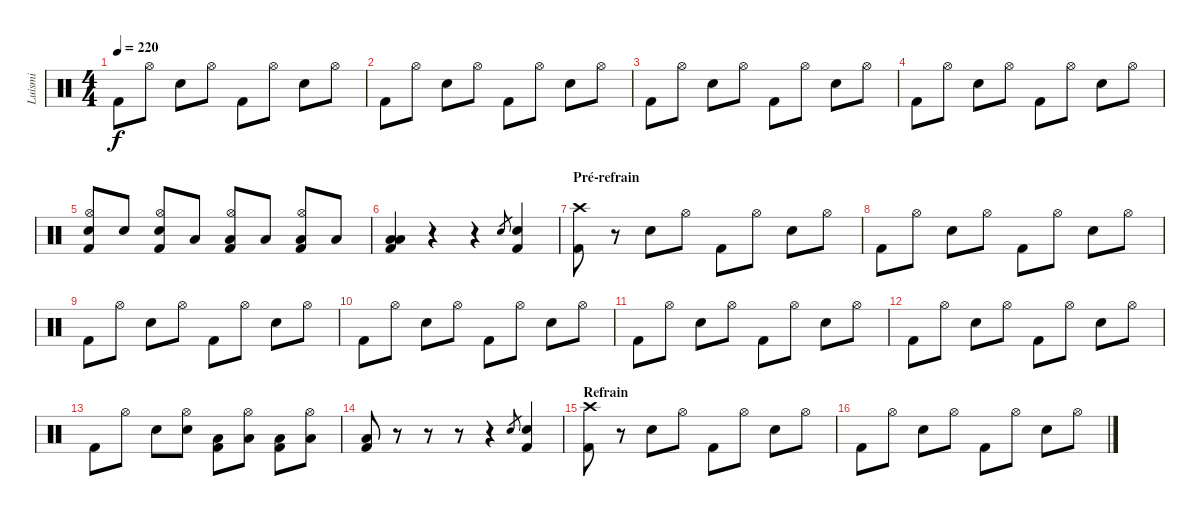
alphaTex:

\track ("Luismi" "Luismi") {instrument percussion}
\staff {score}
\articulation defaults
\ts (4 4)
\tempo 220
\clef neutral
\ks c "Kick (hit) 2".8{dy f} "Hi-Hat (open)".8 "Snare (hit) 2".8 "Hi-Hat (open)".8 "Kick (hit) 2".8 "Hi-Hat (open)".8 "Snare (hit) 2".8 "Hi-Hat (open)".8
|
"Kick (hit) 2".8 "Hi-Hat (open)".8 "Snare (hit) 2".8 "Hi-Hat (open)".8 "Kick (hit) 2".8 "Hi-Hat (open)".8 "Snare (hit) 2".8 "Hi-Hat (open)".8 |
"Kick (hit) 2".8 "Hi-Hat (open)".8 "Snare (hit) 2".8 "Hi-Hat (open)".8 "Kick (hit) 2".8 "Hi-Hat (open)".8 "Snare (hit) 2".8 "Hi-Hat (open)".8 |
"Kick (hit) 2".8 "Hi-Hat (open)".8 "Snare (hit) 2".8 "Hi-Hat (open)".8 "Kick (hit) 2".8 "Hi-Hat (open)".8 "Snare (hit) 2".8 "Hi-Hat (open)".8 |
("Hi-Hat (open)" "Snare (hit) 2" "Kick (hit) 2").8 "Snare (hit) 2".8 ("Hi-Hat (open)" "Snare (hit) 2" "Kick (hit) 2").8 "Low Tom (hit)".8 ("Hi-Hat (open)" "Low Tom (hit)" "Kick (hit) 2").8 "Low Tom (hit)".8 ("Hi-Hat (open)" "Low Floor Tom (hit)" "Kick (hit) 2").8 "Low Floor Tom (hit)".8 |
("Low Tom (hit)" "Low Floor Tom (hit)" "Kick (hit) 2").4 r.4 r.4 "Snare (hit) 2".8{gr} ("Snare (hit) 2" "Kick (hit) 2").4 |
\section ("" "Pré-refrain")
("Crash high (hit)" "Kick (hit) 2").8 r.8 "Snare (hit) 2".8 "Hi-Hat (open)".8 "Kick (hit) 2".8 "Hi-Hat (open)".8 "Snare (hit) 2".8 "Hi-Hat (open)".8 |
"Kick (hit) 2".8 "Hi-Hat (open)".8 "Snare (hit) 2".8 "Hi-Hat (open)".8 "Kick (hit) 2".8 "Hi-Hat (open)".8 "Snare (hit) 2".8 "Hi-Hat (open)".8 |
"Kick (hit) 2".8 "Hi-Hat (open)".8 "Snare (hit) 2".8 "Hi-Hat (open)".8 "Kick (hit) 2".8 "Hi-Hat (open)".8 "Snare (hit) 2".8 "Hi-Hat (open)".8 |
"Kick (hit) 2".8 "Hi-Hat (open)".8 "Snare (hit) 2".8 "Hi-Hat (open)".8 "Kick (hit) 2".8 "Hi-Hat (open)".8 "Snare (hit) 2".8 "Hi-Hat (open)".8 |
"Kick (hit) 2".8 "Hi-Hat (open)".8 "Snare (hit) 2".8 "Hi-Hat (open)".8 "Kick (hit) 2".8 "Hi-Hat (open)".8 "Snare (hit) 2".8 "Hi-Hat (open)".8 |
"Kick (hit) 2".8 "Hi-Hat (open)".8 "Snare (hit) 2".8 "Hi-Hat (open)".8 "Kick (hit) 2".8 "Hi-Hat (open)".8 "Snare (hit) 2".8 "Hi-Hat (open)".8 |
"Kick (hit) 2".8 "Hi-Hat (open)".8 "Snare (hit) 2".8 ("Hi-Hat (open)" "Snare (hit) 2").8 ("Low Tom (hit)" "Kick (hit) 2").8 ("Hi-Hat (open)" "Low Tom (hit)").8 ("Low Floor Tom (hit)" "Kick (hit) 2").8 ("Hi-Hat (open)" "Low Floor Tom (hit)").8 |
("Low Floor Tom (hit)" "Kick (hit) 2").8 r.8 r.8 r.8 r.4 "Snare (hit) 2".8{gr} ("Snare (hit) 2" "Kick (hit) 2").4 |
\section ("" "Refrain")
("Crash high (hit)" "Kick (hit) 2").8 r.8 "Snare (hit) 2".8 "Hi-Hat (open)".8 "Kick (hit) 2".8 "Hi-Hat (open)".8 "Snare (hit) 2".8 "Hi-Hat (open)".8 |
"Kick (hit) 2".8 "Hi-Hat (open)".8 "Snare (hit) 2".8 "Hi-Hat (open)".8 "Kick (hit) 2".8 "Hi-Hat (open)".8 "Snare (hit) 2".8 "Hi-Hat (open)".8
